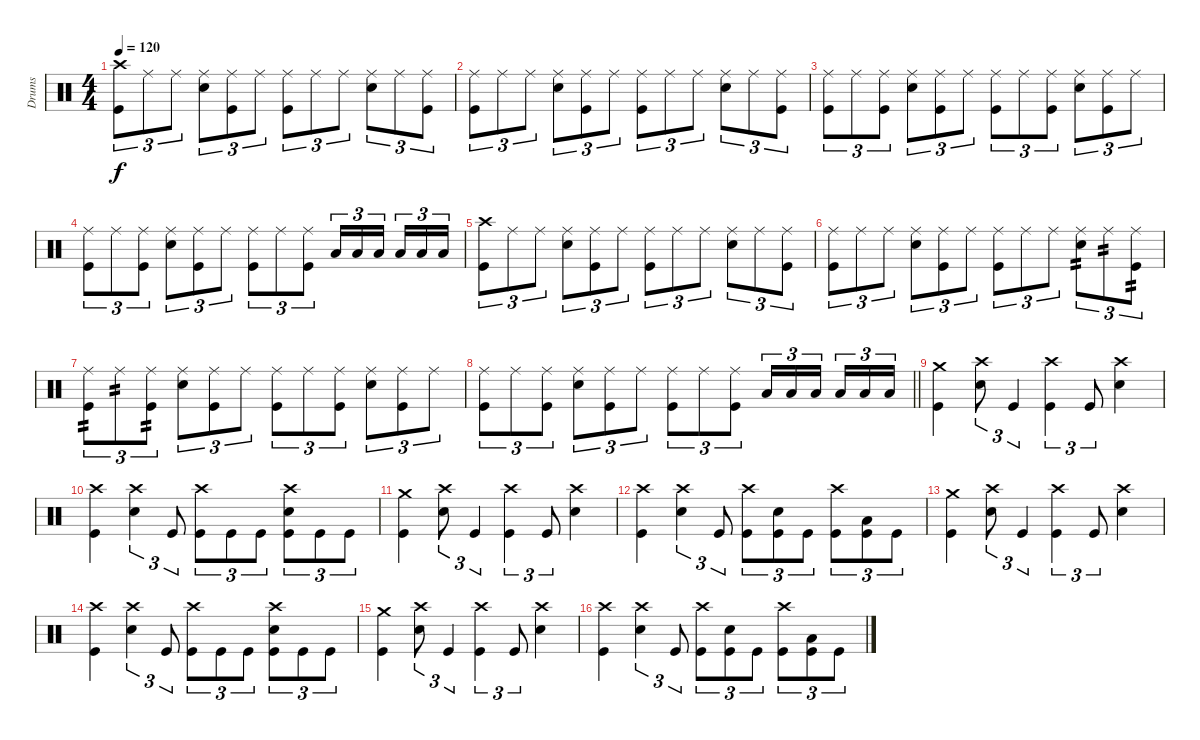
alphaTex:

\track ("Drums" "Drums") {instrument percussion}
\staff {score}
\articulation defaults
\ts (4 4)
\section ("" "")
\tempo 120
\clef neutral
\ks c
("Crash high (hit)" "Kick (hit)").8{tu (3 2) dy f} "Ride (middle)".8{tu (3 2)} "Ride (middle)".8{tu (3 2)} ("Ride (middle)" "Snare (hit) 2").8{tu (3 2)} ("Ride (middle)" "Kick (hit)").8{tu (3 2)} "Ride (middle)".8{tu (3 2)} ("Ride (middle)" "Kick (hit)").8{tu (3 2)} "Ride (middle)".8{tu (3 2)} "Ride (middle)".8{tu (3 2)} ("Ride (middle)" "Snare (hit) 2").8{tu (3 2)} "Ride (middle)".8{tu (3 2)} ("Ride (middle)" "Kick (hit)").8{tu (3 2)} |
("Ride (middle)" "Kick (hit)").8{tu (3 2)} "Ride (middle)".8{tu (3 2)} "Ride (middle)".8{tu (3 2)} ("Ride (middle)" "Snare (hit) 2").8{tu (3 2)} ("Ride (middle)" "Kick (hit)").8{tu (3 2)} "Ride (middle)".8{tu (3 2)} ("Ride (middle)" "Kick (hit)").8{tu (3 2)} "Ride (middle)".8{tu (3 2)} "Ride (middle)".8{tu (3 2)} ("Ride (middle)" "Snare (hit) 2").8{tu (3 2)} "Ride (middle)".8{tu (3 2)} ("Ride (middle)" "Kick (hit)").8{tu (3 2)} |
("Ride (middle)" "Kick (hit)").8{tu (3 2)} "Ride (middle)".8{tu (3 2)} ("Ride (middle)" "Kick (hit)").8{tu (3 2)} ("Ride (middle)" "Snare (hit) 2").8{tu (3 2)} ("Ride (middle)" "Kick (hit)").8{tu (3 2)} "Ride (middle)".8{tu (3 2)} ("Ride (middle)" "Kick (hit)").8{tu (3 2)} "Ride (middle)".8{tu (3 2)} ("Ride (middle)" "Kick (hit)").8{tu (3 2)} ("Ride (middle)" "Snare (hit) 2").8{tu (3 2)} ("Ride (middle)" "Kick (hit)").8{tu (3 2)} "Ride (middle)".8{tu (3 2)} |
("Ride (middle)" "Kick (hit)").8{tu (3 2)} "Ride (middle)".8{tu (3 2)} ("Ride (middle)" "Kick (hit)").8{tu (3 2)} ("Ride (middle)" "Snare (hit) 2").8{tu (3 2)} ("Ride (middle)" "Kick (hit)").8{tu (3 2)} "Ride (middle)".8{tu (3 2)} ("Ride (middle)" "Kick (hit)").8{tu (3 2)} "Ride (middle)".8{tu (3 2)} ("Ride (middle)" "Kick (hit)").8{tu (3 2)} "Low Tom (hit)".16{tu (3 2)} "Low Tom (hit)".16{tu (3 2)} "Low Tom (hit)".16{tu (3 2) beam splitsecondary} "Low Tom (hit)".16{tu (3 2)} "Low Tom (hit)".16{tu (3 2)} "Low Tom (hit)".16{tu (3 2)} |
("Crash high (hit)" "Kick (hit)").8{tu (3 2)} "Ride (middle)".8{tu (3 2)} "Ride (middle)".8{tu (3 2)} ("Ride (middle)" "Snare (hit) 2").8{tu (3 2)} ("Ride (middle)" "Kick (hit)").8{tu (3 2)} "Ride (middle)".8{tu (3 2)} ("Ride (middle)" "Kick (hit)").8{tu (3 2)} "Ride (middle)".8{tu (3 2)} "Ride (middle)".8{tu (3 2)} ("Ride (middle)" "Snare (hit) 2").8{tu (3 2)} "Ride (middle)".8{tu (3 2)} ("Ride (middle)" "Kick (hit)").8{tu (3 2)} |
("Ride (middle)" "Kick (hit)").8{tu (3 2)} "Ride (middle)".8{tu (3 2)} "Ride (middle)".8{tu (3 2)} ("Ride (middle)" "Snare (hit) 2").8{tu (3 2)} ("Ride (middle)" "Kick (hit)").8{tu (3 2)} "Ride (middle)".8{tu (3 2)} ("Ride (middle)" "Kick (hit)").8{tu (3 2)} "Ride (middle)".8{tu (3 2)} "Ride (middle)".8{tu (3 2)} ("Ride (middle)" "Snare (hit) 2").8{tu (3 2) tp 2} "Ride (middle)".8{tu (3 2) tp 2} ("Ride (middle)" "Kick (hit)").8{tu (3 2) tp 2} |
("Ride (middle)" "Kick (hit)").8{tu (3 2) tp 2} "Ride (middle)".8{tu (3 2) tp 2} ("Ride (middle)" "Kick (hit)").8{tu (3 2) tp 2} ("Ride (middle)" "Snare (hit) 2").8{tu (3 2)} ("Ride (middle)" "Kick (hit)").8{tu (3 2)} "Ride (middle)".8{tu (3 2)} ("Ride (middle)" "Kick (hit)").8{tu (3 2)} "Ride (middle)".8{tu (3 2)} ("Ride (middle)" "Kick (hit)").8{tu (3 2)} ("Ride (middle)" "Snare (hit) 2").8{tu (3 2)} ("Ride (middle)" "Kick (hit)").8{tu (3 2)} "Ride (middle)".8{tu (3 2)} |
\barLineRight lightlight
("Ride (middle)" "Kick (hit)").8{tu (3 2)} "Ride (middle)".8{tu (3 2)} ("Ride (middle)" "Kick (hit)").8{tu (3 2)} ("Ride (middle)" "Snare (hit) 2").8{tu (3 2)} ("Ride (middle)" "Kick (hit)").8{tu (3 2)} "Ride (middle)".8{tu (3 2)} ("Ride (middle)" "Kick (hit)").8{tu (3 2)} "Ride (middle)".8{tu (3 2)} ("Ride (middle)" "Kick (hit)").8{tu (3 2)} "Low Tom (hit)".16{tu (3 2)} "Low Tom (hit)".16{tu (3 2)} "Low Tom (hit)".16{tu (3 2) beam splitsecondary} "Low Tom (hit)".16{tu (3 2)} "Low Tom (hit)".16{tu (3 2)} "Low Tom (hit)".16{tu (3 2)} |
\section ("" "")
("Crash medium (hit)" "Kick (hit)").4 ("Crash high (hit)" "Snare (hit) 2").8{tu (3 2)} "Kick (hit)".4{tu (3 2)} ("Crash high (hit)" "Kick (hit)").4{tu (3 2)} "Kick (hit)".8{tu (3 2)} ("Crash high (hit)" "Snare (hit) 2").4 |
("Crash high (hit)" "Kick (hit)").4 ("Crash high (hit)" "Snare (hit) 2").4{tu (3 2)} "Kick (hit)".8{tu (3 2)} ("Crash high (hit)" "Kick (hit)").8{tu (3 2)} "Kick (hit)".8{tu (3 2)} "Kick (hit)".8{tu (3 2)} ("Crash high (hit)" "Snare (hit) 2" "Kick (hit)").8{tu (3 2)} "Kick (hit)".8{tu (3 2)} "Kick (hit)".8{tu (3 2)} |
("Crash medium (hit)" "Kick (hit)").4 ("Crash high (hit)" "Snare (hit) 2").8{tu (3 2)} "Kick (hit)".4{tu (3 2)} ("Crash high (hit)" "Kick (hit)").4{tu (3 2)} "Kick (hit)".8{tu (3 2)} ("Crash high (hit)" "Snare (hit) 2").4 |
("Crash high (hit)" "Kick (hit)").4 ("Crash high (hit)" "Snare (hit) 2").4{tu (3 2)} "Kick (hit)".8{tu (3 2)} ("Crash high (hit)" "Kick (hit)").8{tu (3 2)} ("Snare (hit) 2" "Kick (hit)").8{tu (3 2)} "Kick (hit)".8{tu (3 2)} ("Crash high (hit)" "Kick (hit)").8{tu (3 2)} ("Low Tom (hit)" "Kick (hit)").8{tu (3 2)} "Kick (hit)".8{tu (3 2)} |
("Crash medium (hit)" "Kick (hit)").4 ("Crash high (hit)" "Snare (hit) 2").8{tu (3 2)} "Kick (hit)".4{tu (3 2)} ("Crash high (hit)" "Kick (hit)").4{tu (3 2)} "Kick (hit)".8{tu (3 2)} ("Crash high (hit)" "Snare (hit) 2").4 |
("Crash high (hit)" "Kick (hit)").4 ("Crash high (hit)" "Snare (hit) 2").4{tu (3 2)} "Kick (hit)".8{tu (3 2)} ("Crash high (hit)" "Kick (hit)").8{tu (3 2)} "Kick (hit)".8{tu (3 2)} "Kick (hit)".8{tu (3 2)} ("Crash high (hit)" "Snare (hit) 2" "Kick (hit)").8{tu (3 2)} "Kick (hit)".8{tu (3 2)} "Kick (hit)".8{tu (3 2)} |
("Crash medium (hit)" "Kick (hit)").4 ("Crash high (hit)" "Snare (hit) 2").8{tu (3 2)} "Kick (hit)".4{tu (3 2)} ("Crash high (hit)" "Kick (hit)").4{tu (3 2)} "Kick (hit)".8{tu (3 2)} ("Crash high (hit)" "Snare (hit) 2").4 |
("Crash high (hit)" "Kick (hit)").4 ("Crash high (hit)" "Snare (hit) 2").4{tu (3 2)} "Kick (hit)".8{tu (3 2)} ("Crash high (hit)" "Kick (hit)").8{tu (3 2)} ("Snare (hit) 2" "Kick (hit)").8{tu (3 2)} "Kick (hit)".8{tu (3 2)} ("Crash high (hit)" "Kick (hit)").8{tu (3 2)} ("Low Tom (hit)" "Kick (hit)").8{tu (3 2)} "Kick (hit)".8{tu (3 2)}
